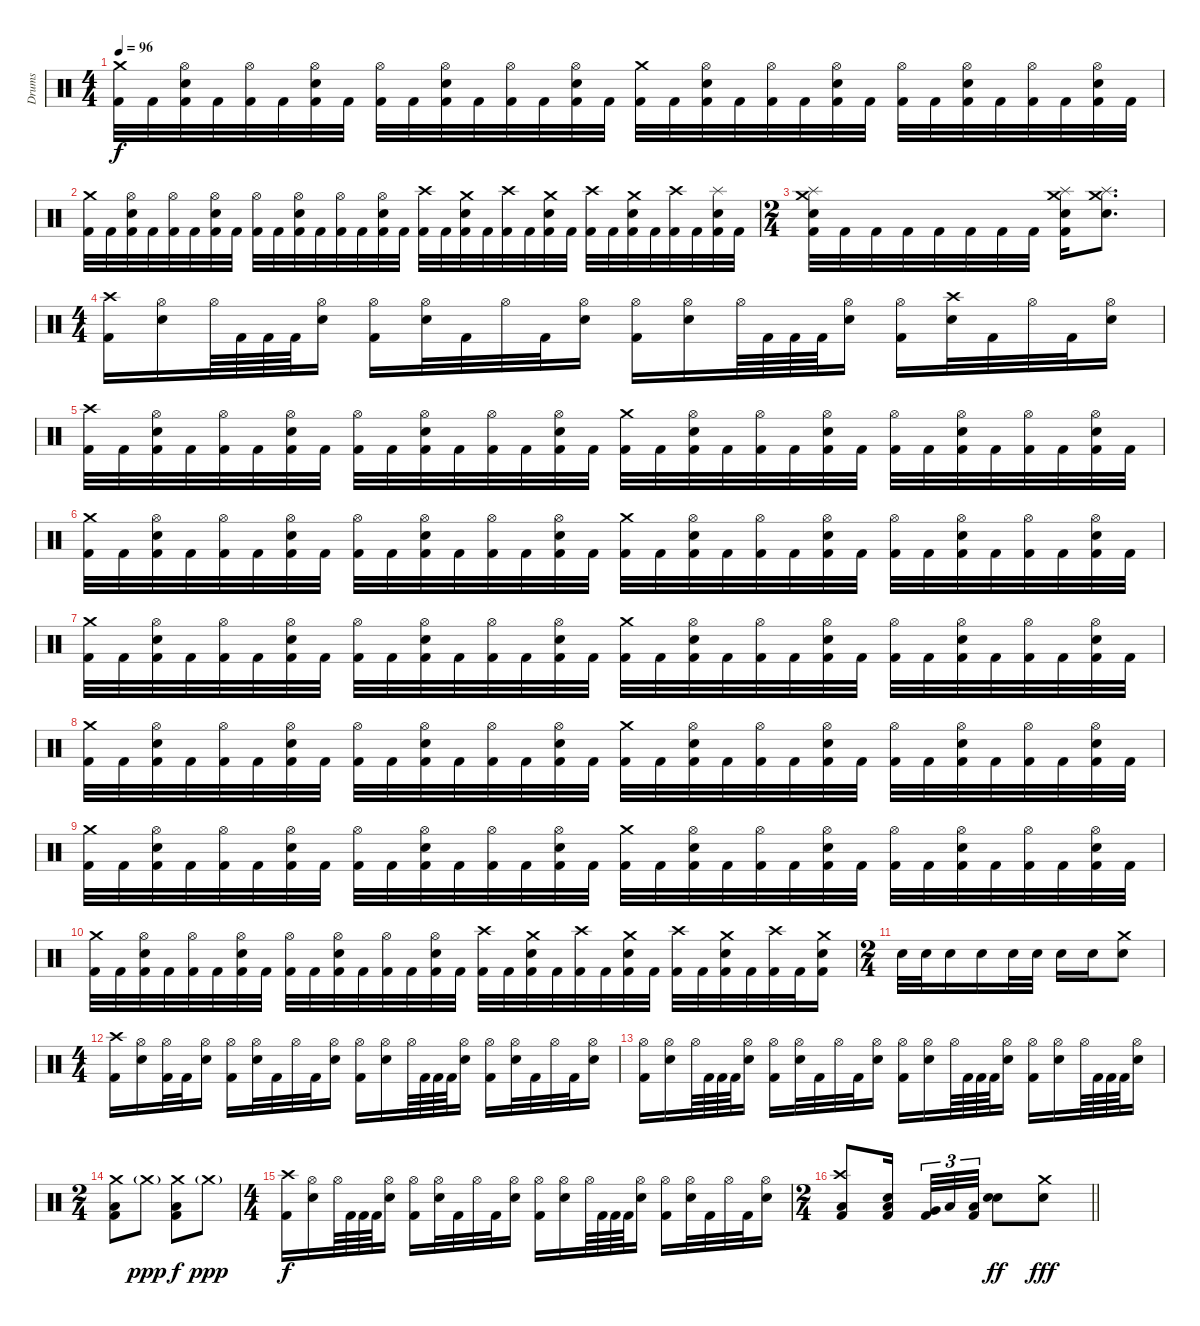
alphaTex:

\track ("Drums" "Drums") {instrument percussion}
\staff {score}
\articulation defaults
\ts (4 4)
\tempo 96
\clef neutral
\ks c
("Crash medium (hit)" "Kick (hit) 2").32{dy f} "Kick (hit) 2".32 ("Hi-Hat (open)" "Electric Snare (hit)" "Kick (hit) 2").32 "Kick (hit) 2".32 ("Hi-Hat (open)" "Kick (hit) 2").32 "Kick (hit) 2".32 ("Hi-Hat (open)" "Electric Snare (hit)" "Kick (hit) 2").32 "Kick (hit) 2".32 ("Hi-Hat (open)" "Kick (hit) 2").32 "Kick (hit) 2".32 ("Hi-Hat (open)" "Electric Snare (hit)" "Kick (hit) 2").32 "Kick (hit) 2".32 ("Hi-Hat (open)" "Kick (hit) 2").32 "Kick (hit) 2".32 ("Hi-Hat (open)" "Electric Snare (hit)" "Kick (hit) 2").32 "Kick (hit) 2".32 ("Crash medium (hit)" "Kick (hit) 2").32 "Kick (hit) 2".32 ("Hi-Hat (open)" "Electric Snare (hit)" "Kick (hit) 2").32 "Kick (hit) 2".32 ("Hi-Hat (open)" "Kick (hit) 2").32 "Kick (hit) 2".32 ("Hi-Hat (open)" "Electric Snare (hit)" "Kick (hit) 2").32 "Kick (hit) 2".32 ("Hi-Hat (open)" "Kick (hit) 2").32 "Kick (hit) 2".32 ("Hi-Hat (open)" "Electric Snare (hit)" "Kick (hit) 2").32 "Kick (hit) 2".32 ("Hi-Hat (open)" "Kick (hit) 2").32 "Kick (hit) 2".32 ("Hi-Hat (open)" "Electric Snare (hit)" "Kick (hit) 2").32 "Kick (hit) 2".32 |
("Crash medium (hit)" "Kick (hit) 2").32 "Kick (hit) 2".32 ("Hi-Hat (open)" "Electric Snare (hit)" "Kick (hit) 2").32 "Kick (hit) 2".32 ("Hi-Hat (open)" "Kick (hit) 2").32 "Kick (hit) 2".32 ("Hi-Hat (open)" "Electric Snare (hit)" "Kick (hit) 2").32 "Kick (hit) 2".32 ("Hi-Hat (open)" "Kick (hit) 2").32 "Kick (hit) 2".32 ("Hi-Hat (open)" "Electric Snare (hit)" "Kick (hit) 2").32 "Kick (hit) 2".32 ("Hi-Hat (open)" "Kick (hit) 2").32 "Kick (hit) 2".32 ("Hi-Hat (open)" "Electric Snare (hit)" "Kick (hit) 2").32 "Kick (hit) 2".32 ("Crash high (hit)" "Kick (hit) 2").32 "Kick (hit) 2".32 ("Crash medium (hit)" "Electric Snare (hit)" "Kick (hit) 2").32 "Kick (hit) 2".32 ("Crash high (hit)" "Kick (hit) 2").32 "Kick (hit) 2".32 ("Crash medium (hit)" "Electric Snare (hit)" "Kick (hit) 2").32 "Kick (hit) 2".32 ("Crash high (hit)" "Kick (hit) 2").32 "Kick (hit) 2".32 ("Crash medium (hit)" "Electric Snare (hit)" "Kick (hit) 2").32 "Kick (hit) 2".32 ("Crash high (hit)" "Kick (hit) 2").32 "Kick (hit) 2".32 ("Splash (hit)" "Electric Snare (hit)" "Kick (hit) 2").32 "Kick (hit) 2".32 |
\ts (2 4)
("Splash (hit)" "Crash medium (hit)" "Electric Snare (hit)" "Kick (hit) 2").32 "Kick (hit) 2".32 "Kick (hit) 2".32 "Kick (hit) 2".32 "Kick (hit) 2".32 "Kick (hit) 2".32 "Kick (hit) 2".32 "Kick (hit) 2".32 ("Splash (hit)" "Crash medium (hit)" "Electric Snare (hit)" "Kick (hit) 2").16 ("Splash (hit)" "Crash medium (hit)" "Electric Snare (hit)").8{d} |
\ts (4 4)
("Crash high (hit)" "Kick (hit) 2").16 ("Hi-Hat (open)" "Electric Snare (hit)").16 "Hi-Hat (open)".64 "Kick (hit) 2".64 "Kick (hit) 2".64 "Kick (hit) 2".64 ("Hi-Hat (open)" "Electric Snare (hit)").16 ("Hi-Hat (open)" "Kick (hit) 2").16 ("Hi-Hat (open)" "Electric Snare (hit)").32 "Kick (hit) 2".32 "Hi-Hat (open)".32 "Kick (hit) 2".32 ("Hi-Hat (open)" "Electric Snare (hit)").16 ("Hi-Hat (open)" "Kick (hit) 2").16 ("Hi-Hat (open)" "Electric Snare (hit)").16 "Hi-Hat (open)".64 "Kick (hit) 2".64 "Kick (hit) 2".64 "Kick (hit) 2".64 ("Hi-Hat (open)" "Electric Snare (hit)").16 ("Hi-Hat (open)" "Kick (hit) 2").16 ("Crash high (hit)" "Electric Snare (hit)").32 "Kick (hit) 2".32 "Hi-Hat (open)".32 "Kick (hit) 2".32 ("Hi-Hat (open)" "Electric Snare (hit)").16 |
("Crash high (hit)" "Kick (hit) 2").32 "Kick (hit) 2".32 ("Hi-Hat (open)" "Electric Snare (hit)" "Kick (hit) 2").32 "Kick (hit) 2".32 ("Hi-Hat (open)" "Kick (hit) 2").32 "Kick (hit) 2".32 ("Hi-Hat (open)" "Electric Snare (hit)" "Kick (hit) 2").32 "Kick (hit) 2".32 ("Hi-Hat (open)" "Kick (hit) 2").32 "Kick (hit) 2".32 ("Hi-Hat (open)" "Electric Snare (hit)" "Kick (hit) 2").32 "Kick (hit) 2".32 ("Hi-Hat (open)" "Kick (hit) 2").32 "Kick (hit) 2".32 ("Hi-Hat (open)" "Electric Snare (hit)" "Kick (hit) 2").32 "Kick (hit) 2".32 ("Crash medium (hit)" "Kick (hit) 2").32 "Kick (hit) 2".32 ("Hi-Hat (open)" "Electric Snare (hit)" "Kick (hit) 2").32 "Kick (hit) 2".32 ("Hi-Hat (open)" "Kick (hit) 2").32 "Kick (hit) 2".32 ("Hi-Hat (open)" "Electric Snare (hit)" "Kick (hit) 2").32 "Kick (hit) 2".32 ("Hi-Hat (open)" "Kick (hit) 2").32 "Kick (hit) 2".32 ("Hi-Hat (open)" "Electric Snare (hit)" "Kick (hit) 2").32 "Kick (hit) 2".32 ("Hi-Hat (open)" "Kick (hit) 2").32 "Kick (hit) 2".32 ("Hi-Hat (open)" "Electric Snare (hit)" "Kick (hit) 2").32 "Kick (hit) 2".32 |
("Crash medium (hit)" "Kick (hit) 2").32 "Kick (hit) 2".32 ("Hi-Hat (open)" "Electric Snare (hit)" "Kick (hit) 2").32 "Kick (hit) 2".32 ("Hi-Hat (open)" "Kick (hit) 2").32 "Kick (hit) 2".32 ("Hi-Hat (open)" "Electric Snare (hit)" "Kick (hit) 2").32 "Kick (hit) 2".32 ("Hi-Hat (open)" "Kick (hit) 2").32 "Kick (hit) 2".32 ("Hi-Hat (open)" "Electric Snare (hit)" "Kick (hit) 2").32 "Kick (hit) 2".32 ("Hi-Hat (open)" "Kick (hit) 2").32 "Kick (hit) 2".32 ("Hi-Hat (open)" "Electric Snare (hit)" "Kick (hit) 2").32 "Kick (hit) 2".32 ("Crash medium (hit)" "Kick (hit) 2").32 "Kick (hit) 2".32 ("Hi-Hat (open)" "Electric Snare (hit)" "Kick (hit) 2").32 "Kick (hit) 2".32 ("Hi-Hat (open)" "Kick (hit) 2").32 "Kick (hit) 2".32 ("Hi-Hat (open)" "Electric Snare (hit)" "Kick (hit) 2").32 "Kick (hit) 2".32 ("Hi-Hat (open)" "Kick (hit) 2").32 "Kick (hit) 2".32 ("Hi-Hat (open)" "Electric Snare (hit)" "Kick (hit) 2").32 "Kick (hit) 2".32 ("Hi-Hat (open)" "Kick (hit) 2").32 "Kick (hit) 2".32 ("Hi-Hat (open)" "Electric Snare (hit)" "Kick (hit) 2").32 "Kick (hit) 2".32 |
("Crash medium (hit)" "Kick (hit) 2").32 "Kick (hit) 2".32 ("Hi-Hat (open)" "Electric Snare (hit)" "Kick (hit) 2").32 "Kick (hit) 2".32 ("Hi-Hat (open)" "Kick (hit) 2").32 "Kick (hit) 2".32 ("Hi-Hat (open)" "Electric Snare (hit)" "Kick (hit) 2").32 "Kick (hit) 2".32 ("Hi-Hat (open)" "Kick (hit) 2").32 "Kick (hit) 2".32 ("Hi-Hat (open)" "Electric Snare (hit)" "Kick (hit) 2").32 "Kick (hit) 2".32 ("Hi-Hat (open)" "Kick (hit) 2").32 "Kick (hit) 2".32 ("Hi-Hat (open)" "Electric Snare (hit)" "Kick (hit) 2").32 "Kick (hit) 2".32 ("Crash medium (hit)" "Kick (hit) 2").32 "Kick (hit) 2".32 ("Hi-Hat (open)" "Electric Snare (hit)" "Kick (hit) 2").32 "Kick (hit) 2".32 ("Hi-Hat (open)" "Kick (hit) 2").32 "Kick (hit) 2".32 ("Hi-Hat (open)" "Electric Snare (hit)" "Kick (hit) 2").32 "Kick (hit) 2".32 ("Hi-Hat (open)" "Kick (hit) 2").32 "Kick (hit) 2".32 ("Hi-Hat (open)" "Electric Snare (hit)" "Kick (hit) 2").32 "Kick (hit) 2".32 ("Hi-Hat (open)" "Kick (hit) 2").32 "Kick (hit) 2".32 ("Hi-Hat (open)" "Electric Snare (hit)" "Kick (hit) 2").32 "Kick (hit) 2".32 |
("Crash medium (hit)" "Kick (hit) 2").32 "Kick (hit) 2".32 ("Hi-Hat (open)" "Electric Snare (hit)" "Kick (hit) 2").32 "Kick (hit) 2".32 ("Hi-Hat (open)" "Kick (hit) 2").32 "Kick (hit) 2".32 ("Hi-Hat (open)" "Electric Snare (hit)" "Kick (hit) 2").32 "Kick (hit) 2".32 ("Hi-Hat (open)" "Kick (hit) 2").32 "Kick (hit) 2".32 ("Hi-Hat (open)" "Electric Snare (hit)" "Kick (hit) 2").32 "Kick (hit) 2".32 ("Hi-Hat (open)" "Kick (hit) 2").32 "Kick (hit) 2".32 ("Hi-Hat (open)" "Electric Snare (hit)" "Kick (hit) 2").32 "Kick (hit) 2".32 ("Crash medium (hit)" "Kick (hit) 2").32 "Kick (hit) 2".32 ("Hi-Hat (open)" "Electric Snare (hit)" "Kick (hit) 2").32 "Kick (hit) 2".32 ("Hi-Hat (open)" "Kick (hit) 2").32 "Kick (hit) 2".32 ("Hi-Hat (open)" "Electric Snare (hit)" "Kick (hit) 2").32 "Kick (hit) 2".32 ("Hi-Hat (open)" "Kick (hit) 2").32 "Kick (hit) 2".32 ("Hi-Hat (open)" "Electric Snare (hit)" "Kick (hit) 2").32 "Kick (hit) 2".32 ("Hi-Hat (open)" "Kick (hit) 2").32 "Kick (hit) 2".32 ("Hi-Hat (open)" "Electric Snare (hit)" "Kick (hit) 2").32 "Kick (hit) 2".32 |
("Crash medium (hit)" "Kick (hit) 2").32 "Kick (hit) 2".32 ("Hi-Hat (open)" "Electric Snare (hit)" "Kick (hit) 2").32 "Kick (hit) 2".32 ("Hi-Hat (open)" "Kick (hit) 2").32 "Kick (hit) 2".32 ("Hi-Hat (open)" "Electric Snare (hit)" "Kick (hit) 2").32 "Kick (hit) 2".32 ("Hi-Hat (open)" "Kick (hit) 2").32 "Kick (hit) 2".32 ("Hi-Hat (open)" "Electric Snare (hit)" "Kick (hit) 2").32 "Kick (hit) 2".32 ("Hi-Hat (open)" "Kick (hit) 2").32 "Kick (hit) 2".32 ("Hi-Hat (open)" "Electric Snare (hit)" "Kick (hit) 2").32 "Kick (hit) 2".32 ("Crash medium (hit)" "Kick (hit) 2").32 "Kick (hit) 2".32 ("Hi-Hat (open)" "Electric Snare (hit)" "Kick (hit) 2").32 "Kick (hit) 2".32 ("Hi-Hat (open)" "Kick (hit) 2").32 "Kick (hit) 2".32 ("Hi-Hat (open)" "Electric Snare (hit)" "Kick (hit) 2").32 "Kick (hit) 2".32 ("Hi-Hat (open)" "Kick (hit) 2").32 "Kick (hit) 2".32 ("Hi-Hat (open)" "Electric Snare (hit)" "Kick (hit) 2").32 "Kick (hit) 2".32 ("Hi-Hat (open)" "Kick (hit) 2").32 "Kick (hit) 2".32 ("Hi-Hat (open)" "Electric Snare (hit)" "Kick (hit) 2").32 "Kick (hit) 2".32 |
("Crash medium (hit)" "Kick (hit) 2").32 "Kick (hit) 2".32 ("Hi-Hat (open)" "Electric Snare (hit)" "Kick (hit) 2").32 "Kick (hit) 2".32 ("Hi-Hat (open)" "Kick (hit) 2").32 "Kick (hit) 2".32 ("Hi-Hat (open)" "Electric Snare (hit)" "Kick (hit) 2").32 "Kick (hit) 2".32 ("Hi-Hat (open)" "Kick (hit) 2").32 "Kick (hit) 2".32 ("Hi-Hat (open)" "Electric Snare (hit)" "Kick (hit) 2").32 "Kick (hit) 2".32 ("Hi-Hat (open)" "Kick (hit) 2").32 "Kick (hit) 2".32 ("Hi-Hat (open)" "Electric Snare (hit)" "Kick (hit) 2").32 "Kick (hit) 2".32 ("Crash high (hit)" "Kick (hit) 2").32 "Kick (hit) 2".32 ("Crash medium (hit)" "Electric Snare (hit)" "Kick (hit) 2").32 "Kick (hit) 2".32 ("Crash high (hit)" "Kick (hit) 2").32 "Kick (hit) 2".32 ("Crash medium (hit)" "Electric Snare (hit)" "Kick (hit) 2").32 "Kick (hit) 2".32 ("Crash high (hit)" "Kick (hit) 2").32 "Kick (hit) 2".32 ("Crash medium (hit)" "Electric Snare (hit)" "Kick (hit) 2").32 "Kick (hit) 2".32 ("Crash high (hit)" "Kick (hit) 2").32 "Kick (hit) 2".32 ("Crash medium (hit)" "Electric Snare (hit)" "Kick (hit) 2").16 |
\ts (2 4)
"Electric Snare (hit)".32 "Electric Snare (hit)".32 "Electric Snare (hit)".16 "Electric Snare (hit)".16 "Electric Snare (hit)".32 "Electric Snare (hit)".32 "Electric Snare (hit)".16 "Electric Snare (hit)".16 ("Crash medium (hit)" "Electric Snare (hit)").8 |
\ts (4 4)
("Crash high (hit)" "Kick (hit) 2").16 ("Hi-Hat (open)" "Electric Snare (hit)").16 ("Hi-Hat (open)" "Kick (hit) 2").32 "Kick (hit) 2".32 ("Hi-Hat (open)" "Electric Snare (hit)").16 ("Hi-Hat (open)" "Kick (hit) 2").16 ("Hi-Hat (open)" "Electric Snare (hit)").32 "Kick (hit) 2".32 "Hi-Hat (open)".32 "Kick (hit) 2".32 ("Hi-Hat (open)" "Electric Snare (hit)").16 ("Hi-Hat (open)" "Kick (hit) 2").16 ("Hi-Hat (open)" "Electric Snare (hit)").16 "Hi-Hat (open)".64 "Kick (hit) 2".64 "Kick (hit) 2".64 "Kick (hit) 2".64 ("Hi-Hat (open)" "Electric Snare (hit)").16 ("Hi-Hat (open)" "Kick (hit) 2").16 ("Hi-Hat (open)" "Electric Snare (hit)").32 "Kick (hit) 2".32 "Hi-Hat (open)".32 "Kick (hit) 2".32 ("Hi-Hat (open)" "Electric Snare (hit)").16 |
("Hi-Hat (open)" "Kick (hit) 2").16 ("Hi-Hat (open)" "Electric Snare (hit)").16 "Hi-Hat (open)".64 "Kick (hit) 2".64 "Kick (hit) 2".64 "Kick (hit) 2".64 ("Hi-Hat (open)" "Electric Snare (hit)").16 ("Hi-Hat (open)" "Kick (hit) 2").16 ("Hi-Hat (open)" "Electric Snare (hit)").32 "Kick (hit) 2".32 "Hi-Hat (open)".32 "Kick (hit) 2".32 ("Hi-Hat (open)" "Electric Snare (hit)").16 ("Hi-Hat (open)" "Kick (hit) 2").16 ("Hi-Hat (open)" "Electric Snare (hit)").16 "Hi-Hat (open)".64 "Kick (hit) 2".64 "Kick (hit) 2".64 "Kick (hit) 2".64 ("Hi-Hat (open)" "Electric Snare (hit)").16 ("Hi-Hat (open)" "Kick (hit) 2").16 ("Hi-Hat (open)" "Electric Snare (hit)").16 "Hi-Hat (open)".64 "Kick (hit) 2".64 "Kick (hit) 2".64 "Kick (hit) 2".64 ("Hi-Hat (open)" "Electric Snare (hit)").16 |
\ts (2 4)
("Crash medium (hit)" "Low Floor Tom (hit)" "Kick (hit) 2").8 "Crash medium (hit)"{g}.8{dy ppp} ("Crash medium (hit)" "Low Floor Tom (hit)" "Kick (hit) 2").8{dy f} "Crash medium (hit)"{g}.8{dy ppp} |
\ts (4 4)
("Crash high (hit)" "Kick (hit) 2").16{dy f} ("Hi-Hat (open)" "Electric Snare (hit)").16 "Hi-Hat (open)".64 "Kick (hit) 2".64 "Kick (hit) 2".64 "Kick (hit) 2".64 ("Hi-Hat (open)" "Electric Snare (hit)").16 ("Hi-Hat (open)" "Kick (hit) 2").16 ("Hi-Hat (open)" "Electric Snare (hit)").32 "Kick (hit) 2".32 "Hi-Hat (open)".32 "Kick (hit) 2".32 ("Hi-Hat (open)" "Electric Snare (hit)").16 ("Hi-Hat (open)" "Kick (hit) 2").16 ("Hi-Hat (open)" "Electric Snare (hit)").16 "Hi-Hat (open)".64 "Kick (hit) 2".64 "Kick (hit) 2".64 "Kick (hit) 2".64 ("Hi-Hat (open)" "Electric Snare (hit)").16 ("Hi-Hat (open)" "Kick (hit) 2").16 ("Hi-Hat (open)" "Electric Snare (hit)").32 "Kick (hit) 2".32 "Hi-Hat (open)".32 "Kick (hit) 2".32 ("Hi-Hat (open)" "Electric Snare (hit)").16 |
\ts (2 4)
\barLineRight lightlight
("Crash high (hit)" "Low Floor Tom (hit)" "Kick (hit) 2").8 ("Low Tom (hit)" "Electric Snare (hit)" "Kick (hit) 2").16{bd 30 beam splitsecondary} ("Very Low Tom (hit)" "Kick (hit) 2").32{tu (3 2) bd 30} "Low Floor Tom (hit)".32{tu (3 2)} ("Low Floor Tom (hit)" "Kick (hit) 2").32{tu (3 2)} ("Electric Snare (hit)" "Electric Snare (hit)").8{bd 30 dy ff} ("Crash medium (hit)" "Electric Snare (hit)").8{dy fff}
